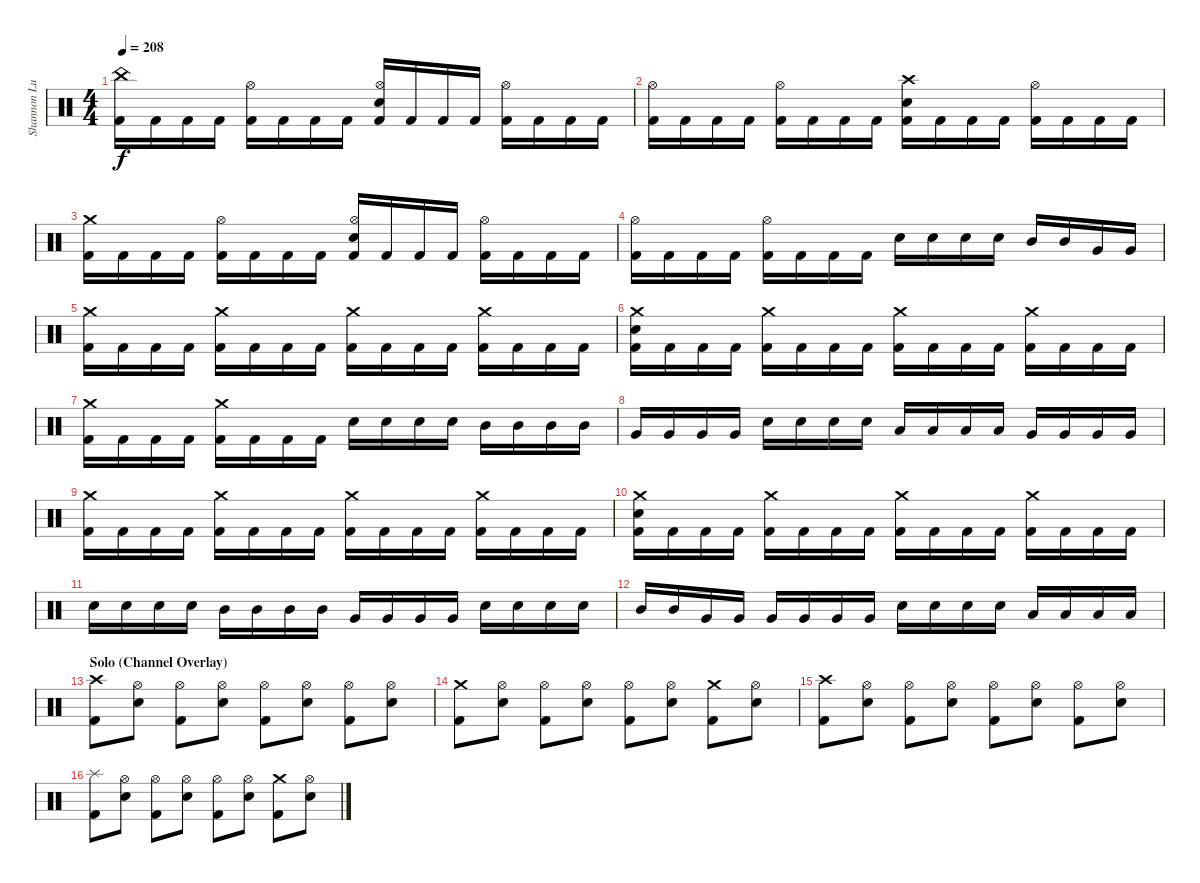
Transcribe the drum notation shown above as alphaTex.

\track ("Shannon Lucas [Drums (Since 2007)]" "Shannon Lu") {instrument percussion}
\staff {score}
\articulation defaults
\ts (4 4)
\tempo 208
\clef neutral
\ks c
("China (hit)" "Kick (hit) 2").16{dy f} "Kick (hit) 2".16 "Kick (hit) 2".16 "Kick (hit) 2".16 ("Hi-Hat (open)" "Kick (hit) 2").16 "Kick (hit) 2".16 "Kick (hit) 2".16 "Kick (hit) 2".16 ("Hi-Hat (open)" "Snare (hit) 2" "Kick (hit) 2").16 "Kick (hit) 2".16 "Kick (hit) 2".16 "Kick (hit) 2".16 ("Hi-Hat (open)" "Kick (hit) 2").16 "Kick (hit) 2".16 "Kick (hit) 2".16 "Kick (hit) 2".16 |
("Hi-Hat (open)" "Kick (hit) 2").16 "Kick (hit) 2".16 "Kick (hit) 2".16 "Kick (hit) 2".16 ("Hi-Hat (open)" "Kick (hit) 2").16 "Kick (hit) 2".16 "Kick (hit) 2".16 "Kick (hit) 2".16 ("Crash high (hit)" "Snare (hit) 2" "Kick (hit) 2").16 "Kick (hit) 2".16 "Kick (hit) 2".16 "Kick (hit) 2".16 ("Hi-Hat (open)" "Kick (hit) 2").16 "Kick (hit) 2".16 "Kick (hit) 2".16 "Kick (hit) 2".16 |
("Crash medium (hit)" "Kick (hit) 2").16 "Kick (hit) 2".16 "Kick (hit) 2".16 "Kick (hit) 2".16 ("Hi-Hat (open)" "Kick (hit) 2").16 "Kick (hit) 2".16 "Kick (hit) 2".16 "Kick (hit) 2".16 ("Hi-Hat (open)" "Snare (hit) 2" "Kick (hit) 2").16 "Kick (hit) 2".16 "Kick (hit) 2".16 "Kick (hit) 2".16 ("Hi-Hat (open)" "Kick (hit) 2").16 "Kick (hit) 2".16 "Kick (hit) 2".16 "Kick (hit) 2".16 |
("Hi-Hat (open)" "Kick (hit) 2").16 "Kick (hit) 2".16 "Kick (hit) 2".16 "Kick (hit) 2".16 ("Hi-Hat (open)" "Kick (hit) 2").16 "Kick (hit) 2".16 "Kick (hit) 2".16 "Kick (hit) 2".16 "Snare (hit) 2".16 "Snare (hit) 2".16 "Snare (hit) 2".16 "Snare (hit) 2".16 "Mid Tom (hit)".16 "Mid Tom (hit)".16 "Very Low Tom (hit)".16 "Very Low Tom (hit)".16 |
("Crash medium (hit)" "Kick (hit) 2").16 "Kick (hit) 2".16 "Kick (hit) 2".16 "Kick (hit) 2".16 ("Crash medium (hit)" "Kick (hit) 2").16 "Kick (hit) 2".16 "Kick (hit) 2".16 "Kick (hit) 2".16 ("Crash medium (hit)" "Kick (hit) 2").16 "Kick (hit) 2".16 "Kick (hit) 2".16 "Kick (hit) 2".16 ("Crash medium (hit)" "Kick (hit) 2").16 "Kick (hit) 2".16 "Kick (hit) 2".16 "Kick (hit) 2".16 |
("Crash medium (hit)" "Snare (hit) 2" "Kick (hit) 2").16 "Kick (hit) 2".16 "Kick (hit) 2".16 "Kick (hit) 2".16 ("Crash medium (hit)" "Kick (hit) 2").16 "Kick (hit) 2".16 "Kick (hit) 2".16 "Kick (hit) 2".16 ("Crash medium (hit)" "Kick (hit) 2").16 "Kick (hit) 2".16 "Kick (hit) 2".16 "Kick (hit) 2".16 ("Crash medium (hit)" "Kick (hit) 2").16 "Kick (hit) 2".16 "Kick (hit) 2".16 "Kick (hit) 2".16 |
("Crash medium (hit)" "Kick (hit) 2").16 "Kick (hit) 2".16 "Kick (hit) 2".16 "Kick (hit) 2".16 ("Crash medium (hit)" "Kick (hit) 2").16 "Kick (hit) 2".16 "Kick (hit) 2".16 "Kick (hit) 2".16 "Snare (hit) 2".16 "Snare (hit) 2".16 "Snare (hit) 2".16 "Snare (hit) 2".16 "Mid Tom (hit)".16 "Mid Tom (hit)".16 "Mid Tom (hit)".16 "Mid Tom (hit)".16 |
"Very Low Tom (hit)".16 "Very Low Tom (hit)".16 "Very Low Tom (hit)".16 "Very Low Tom (hit)".16 "Snare (hit) 2".16 "Snare (hit) 2".16 "Snare (hit) 2".16 "Snare (hit) 2".16 "Low Tom (hit)".16 "Low Tom (hit)".16 "Low Tom (hit)".16 "Low Tom (hit)".16 "Very Low Tom (hit)".16 "Very Low Tom (hit)".16 "Very Low Tom (hit)".16 "Very Low Tom (hit)".16 |
("Crash medium (hit)" "Kick (hit) 2").16 "Kick (hit) 2".16 "Kick (hit) 2".16 "Kick (hit) 2".16 ("Crash medium (hit)" "Kick (hit) 2").16 "Kick (hit) 2".16 "Kick (hit) 2".16 "Kick (hit) 2".16 ("Crash medium (hit)" "Kick (hit) 2").16 "Kick (hit) 2".16 "Kick (hit) 2".16 "Kick (hit) 2".16 ("Crash medium (hit)" "Kick (hit) 2").16 "Kick (hit) 2".16 "Kick (hit) 2".16 "Kick (hit) 2".16 |
("Crash medium (hit)" "Snare (hit) 2" "Kick (hit) 2").16 "Kick (hit) 2".16 "Kick (hit) 2".16 "Kick (hit) 2".16 ("Crash medium (hit)" "Kick (hit) 2").16 "Kick (hit) 2".16 "Kick (hit) 2".16 "Kick (hit) 2".16 ("Crash medium (hit)" "Kick (hit) 2").16 "Kick (hit) 2".16 "Kick (hit) 2".16 "Kick (hit) 2".16 ("Crash medium (hit)" "Kick (hit) 2").16 "Kick (hit) 2".16 "Kick (hit) 2".16 "Kick (hit) 2".16 |
"Snare (hit) 2".16 "Snare (hit) 2".16 "Snare (hit) 2".16 "Snare (hit) 2".16 "Mid Tom (hit)".16 "Mid Tom (hit)".16 "Mid Tom (hit)".16 "Mid Tom (hit)".16 "Very Low Tom (hit)".16 "Very Low Tom (hit)".16 "Very Low Tom (hit)".16 "Very Low Tom (hit)".16 "Snare (hit) 2".16 "Snare (hit) 2".16 "Snare (hit) 2".16 "Snare (hit) 2".16 |
"Mid Tom (hit)".16 "Mid Tom (hit)".16 "Very Low Tom (hit)".16 "Very Low Tom (hit)".16 "Very Low Tom (hit)".16 "Very Low Tom (hit)".16 "Very Low Tom (hit)".16 "Very Low Tom (hit)".16 "Snare (hit) 2".16 "Snare (hit) 2".16 "Snare (hit) 2".16 "Snare (hit) 2".16 "Low Floor Tom (hit)".16 "Low Floor Tom (hit)".16 "Low Floor Tom (hit)".16 "Low Floor Tom (hit)".16 |
\section ("" "Solo (Channel Overlay)")
("Crash high (hit)" "Kick (hit) 2").8 ("Hi-Hat (open)" "Snare (hit) 2").8 ("Hi-Hat (open)" "Kick (hit) 2").8 ("Hi-Hat (open)" "Snare (hit) 2").8 ("Hi-Hat (open)" "Kick (hit) 2").8 ("Hi-Hat (open)" "Snare (hit) 2").8 ("Hi-Hat (open)" "Kick (hit) 2").8 ("Hi-Hat (open)" "Snare (hit) 2").8 |
("Crash medium (hit)" "Kick (hit) 2").8 ("Hi-Hat (open)" "Snare (hit) 2").8 ("Hi-Hat (open)" "Kick (hit) 2").8 ("Hi-Hat (open)" "Snare (hit) 2").8 ("Hi-Hat (open)" "Kick (hit) 2").8 ("Hi-Hat (open)" "Snare (hit) 2").8 ("Crash medium (hit)" "Kick (hit) 2").8 ("Hi-Hat (open)" "Snare (hit) 2").8 |
("Crash high (hit)" "Kick (hit) 2").8 ("Hi-Hat (open)" "Snare (hit) 2").8 ("Hi-Hat (open)" "Kick (hit) 2").8 ("Hi-Hat (open)" "Snare (hit) 2").8 ("Hi-Hat (open)" "Kick (hit) 2").8 ("Hi-Hat (open)" "Snare (hit) 2").8 ("Hi-Hat (open)" "Kick (hit) 2").8 ("Hi-Hat (open)" "Snare (hit) 2").8 |
("Splash (hit)" "Kick (hit) 2").8 ("Hi-Hat (open)" "Snare (hit) 2").8 ("Hi-Hat (open)" "Kick (hit) 2").8 ("Hi-Hat (open)" "Snare (hit) 2").8 ("Hi-Hat (open)" "Kick (hit) 2").8 ("Hi-Hat (open)" "Snare (hit) 2").8 ("Crash medium (hit)" "Kick (hit) 2").8 ("Hi-Hat (open)" "Snare (hit) 2").8
